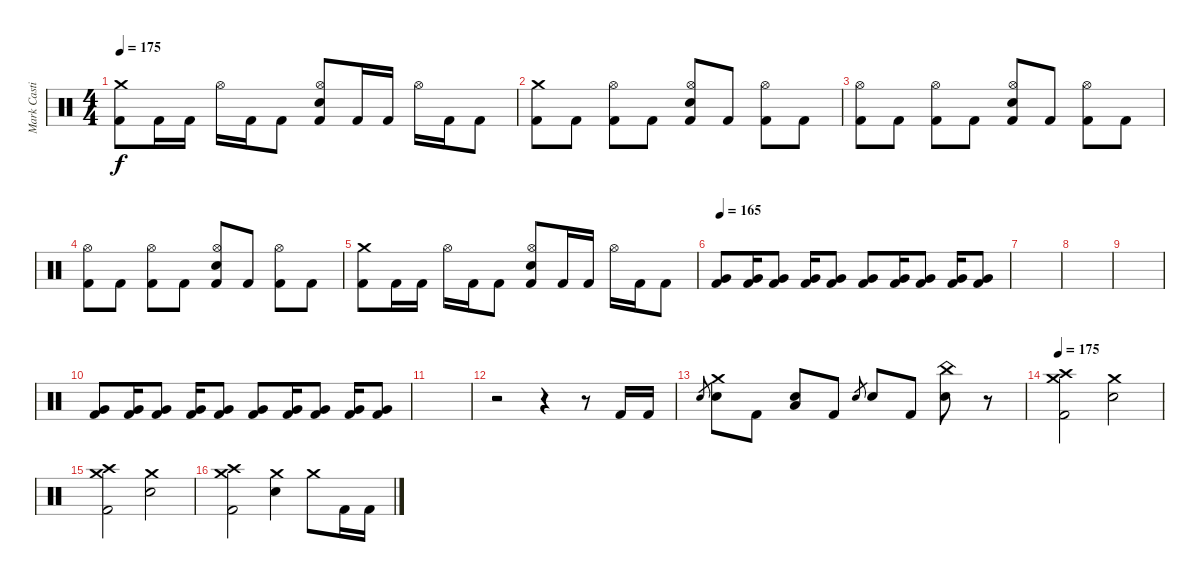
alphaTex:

\track ("Mark Castillo" "Mark Casti") {instrument percussion}
\staff {score}
\articulation defaults
\ts (4 4)
\tempo 175
\clef neutral
\ks c
("Kick (hit) 2" "Crash medium (hit)").8{dy f} "Kick (hit) 2".16 "Kick (hit) 2".16 "Hi-Hat (open)".16 "Kick (hit) 2".16 "Kick (hit) 2".8 ("Kick (hit) 2" "Electric Snare (hit)" "Hi-Hat (open)").8 "Kick (hit) 2".16 "Kick (hit) 2".16 "Hi-Hat (open)".16 "Kick (hit) 2".16 "Kick (hit) 2".8 |
("Kick (hit) 2" "Crash medium (hit)").8 "Kick (hit) 2".8 ("Kick (hit) 2" "Hi-Hat (open)").8 "Kick (hit) 2".8 ("Kick (hit) 2" "Electric Snare (hit)" "Hi-Hat (open)").8 "Kick (hit) 2".8 ("Kick (hit) 2" "Hi-Hat (open)").8 "Kick (hit) 2".8 |
("Kick (hit) 2" "Hi-Hat (open)").8 "Kick (hit) 2".8 ("Kick (hit) 2" "Hi-Hat (open)").8 "Kick (hit) 2".8 ("Kick (hit) 2" "Electric Snare (hit)" "Hi-Hat (open)").8 "Kick (hit) 2".8 ("Kick (hit) 2" "Hi-Hat (open)").8 "Kick (hit) 2".8 |
("Kick (hit) 2" "Hi-Hat (open)").8 "Kick (hit) 2".8 ("Kick (hit) 2" "Hi-Hat (open)").8 "Kick (hit) 2".8 ("Kick (hit) 2" "Electric Snare (hit)" "Hi-Hat (open)").8 "Kick (hit) 2".8 ("Kick (hit) 2" "Hi-Hat (open)").8 "Kick (hit) 2".8 |
("Kick (hit) 2" "Crash medium (hit)").8 "Kick (hit) 2".16 "Kick (hit) 2".16 "Hi-Hat (open)".16 "Kick (hit) 2".16 "Kick (hit) 2".8 ("Kick (hit) 2" "Electric Snare (hit)" "Hi-Hat (open)").8 "Kick (hit) 2".16 "Kick (hit) 2".16 "Hi-Hat (open)".16 "Kick (hit) 2".16 "Kick (hit) 2".8 |
\tempo 165
("Kick (hit) 2" "Very Low Tom (hit)").8 ("Kick (hit) 2" "Very Low Tom (hit)").16 ("Kick (hit) 2" "Very Low Tom (hit)").8 ("Kick (hit) 2" "Very Low Tom (hit)").16 ("Kick (hit) 2" "Very Low Tom (hit)").8 ("Kick (hit) 2" "Very Low Tom (hit)").8 ("Kick (hit) 2" "Very Low Tom (hit)").16 ("Kick (hit) 2" "Very Low Tom (hit)").8 ("Kick (hit) 2" "Very Low Tom (hit)").16 ("Kick (hit) 2" "Very Low Tom (hit)").8 |
|
|
|
("Kick (hit) 2" "Very Low Tom (hit)").8 ("Kick (hit) 2" "Very Low Tom (hit)").16 ("Kick (hit) 2" "Very Low Tom (hit)").8 ("Kick (hit) 2" "Very Low Tom (hit)").16 ("Kick (hit) 2" "Very Low Tom (hit)").8 ("Kick (hit) 2" "Very Low Tom (hit)").8 ("Kick (hit) 2" "Very Low Tom (hit)").16 ("Kick (hit) 2" "Very Low Tom (hit)").8 ("Kick (hit) 2" "Very Low Tom (hit)").16 ("Kick (hit) 2" "Very Low Tom (hit)").8 |
|
r.2 r.4 r.8 "Kick (hit) 2".16 "Kick (hit) 2".16 |
"Electric Snare (hit)".8{gr} ("Electric Snare (hit)" "Crash medium (hit)").8 "Kick (hit) 2".8 ("Electric Snare (hit)" "Low Tom (hit)").8 "Kick (hit) 2".8 "Electric Snare (hit)".8{gr} "Electric Snare (hit)".8 "Kick (hit) 2".8 ("Electric Snare (hit)" "China (hit)").8 r.8 |
\tempo 175
("Kick (hit) 2" "Crash medium (hit)" "Crash high (hit)").2 ("Electric Snare (hit)" "Crash medium (hit)").2 |
("Kick (hit) 2" "Crash medium (hit)" "Crash high (hit)").2 ("Electric Snare (hit)" "Crash medium (hit)").2 |
("Kick (hit) 2" "Crash medium (hit)" "Crash high (hit)").2 ("Electric Snare (hit)" "Crash medium (hit)").4 "Crash medium (hit)".8 "Kick (hit) 2".16 "Kick (hit) 2".16
